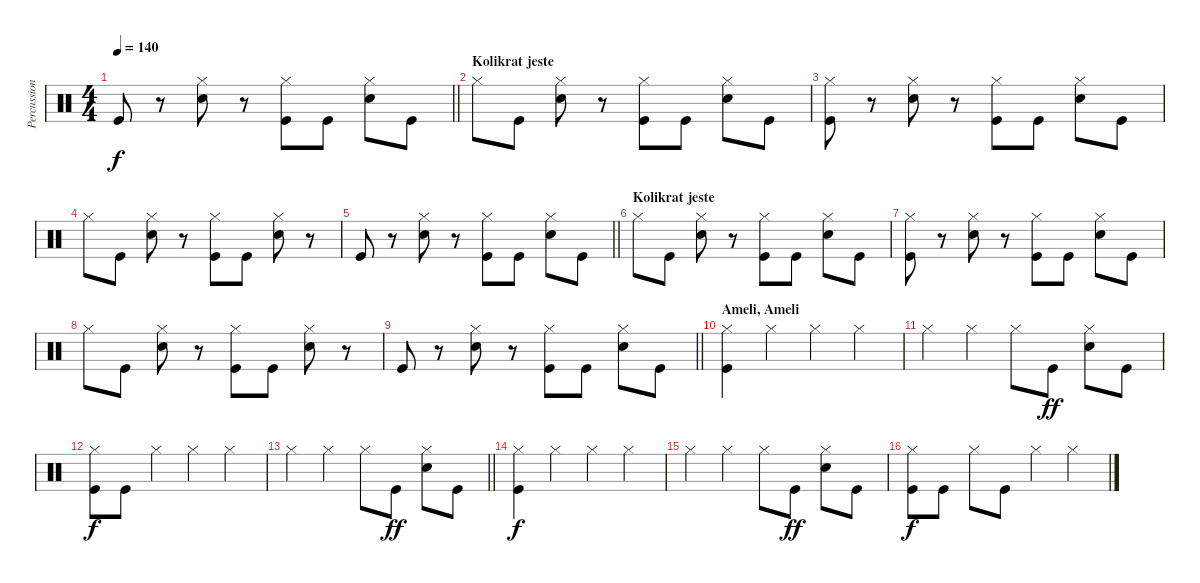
\track ("Percussion" "Percussion") {instrument percussion}
\staff {score}
\articulation defaults
\ts (4 4)
\tempo 140
\clef neutral
\barLineRight lightlight
\ks c "Kick (hit)".8{dy f}
r.8 ("Electric Snare (hit)" "Hi-Hat (closed)").8 r.8 ("Kick (hit)" "Hi-Hat (closed)").8 "Kick (hit)".8 ("Electric Snare (hit)" "Hi-Hat (closed)").8 "Kick (hit)".8 |
\section ("" "Kolikrat jeste")
"Hi-Hat (closed)".8 "Kick (hit)".8 ("Electric Snare (hit)" "Hi-Hat (closed)").8 r.8 ("Kick (hit)" "Hi-Hat (closed)").8 "Kick (hit)".8 ("Electric Snare (hit)" "Hi-Hat (closed)").8 "Kick (hit)".8 |
("Kick (hit)" "Hi-Hat (closed)").8 r.8 ("Electric Snare (hit)" "Hi-Hat (closed)").8 r.8 ("Kick (hit)" "Hi-Hat (closed)").8 "Kick (hit)".8 ("Electric Snare (hit)" "Hi-Hat (closed)").8 "Kick (hit)".8 |
"Hi-Hat (closed)".8 "Kick (hit)".8 ("Electric Snare (hit)" "Hi-Hat (closed)").8 r.8 ("Kick (hit)" "Hi-Hat (closed)").8 "Kick (hit)".8 ("Electric Snare (hit)" "Hi-Hat (closed)").8 r.8 |
\barLineRight lightlight "Kick (hit)".8
r.8 ("Electric Snare (hit)" "Hi-Hat (closed)").8 r.8 ("Kick (hit)" "Hi-Hat (closed)").8 "Kick (hit)".8 ("Electric Snare (hit)" "Hi-Hat (closed)").8 "Kick (hit)".8 |
\section ("" "Kolikrat jeste")
"Hi-Hat (closed)".8 "Kick (hit)".8 ("Electric Snare (hit)" "Hi-Hat (closed)").8 r.8 ("Kick (hit)" "Hi-Hat (closed)").8 "Kick (hit)".8 ("Electric Snare (hit)" "Hi-Hat (closed)").8 "Kick (hit)".8 |
("Kick (hit)" "Hi-Hat (closed)").8 r.8 ("Electric Snare (hit)" "Hi-Hat (closed)").8 r.8 ("Kick (hit)" "Hi-Hat (closed)").8 "Kick (hit)".8 ("Electric Snare (hit)" "Hi-Hat (closed)").8 "Kick (hit)".8 |
"Hi-Hat (closed)".8 "Kick (hit)".8 ("Electric Snare (hit)" "Hi-Hat (closed)").8 r.8 ("Kick (hit)" "Hi-Hat (closed)").8 "Kick (hit)".8 ("Electric Snare (hit)" "Hi-Hat (closed)").8 r.8 |
\barLineRight lightlight "Kick (hit)".8
r.8 ("Electric Snare (hit)" "Hi-Hat (closed)").8 r.8 ("Kick (hit)" "Hi-Hat (closed)").8 "Kick (hit)".8 ("Electric Snare (hit)" "Hi-Hat (closed)").8 "Kick (hit)".8 |
\section ("" "Ameli, Ameli")
("Hi-Hat (closed)" "Kick (hit)").4 "Hi-Hat (closed)".4 "Hi-Hat (closed)".4 "Hi-Hat (closed)".4 |
"Hi-Hat (closed)".4 "Hi-Hat (closed)".4 "Hi-Hat (closed)".8 "Kick (hit)".8{dy ff} ("Hi-Hat (closed)" "Electric Snare (hit)").8 "Kick (hit)".8 |
("Hi-Hat (closed)" "Kick (hit)").8{dy f} "Kick (hit)".8 "Hi-Hat (closed)".4 "Hi-Hat (closed)".4 "Hi-Hat (closed)".4 |
\barLineRight lightlight "Hi-Hat (closed)".4 "Hi-Hat (closed)".4 "Hi-Hat (closed)".8 "Kick (hit)".8{dy ff}
("Hi-Hat (closed)" "Electric Snare (hit)").8 "Kick (hit)".8 |
("Hi-Hat (closed)" "Kick (hit)").4{dy f} "Hi-Hat (closed)".4 "Hi-Hat (closed)".4 "Hi-Hat (closed)".4 |
"Hi-Hat (closed)".4 "Hi-Hat (closed)".4 "Hi-Hat (closed)".8 "Kick (hit)".8{dy ff} ("Hi-Hat (closed)" "Electric Snare (hit)").8 "Kick (hit)".8 |
("Hi-Hat (closed)" "Kick (hit)").8{dy f} "Kick (hit)".8 "Hi-Hat (closed)".8 "Kick (hit)".8 "Hi-Hat (closed)".4 "Hi-Hat (closed)".4
